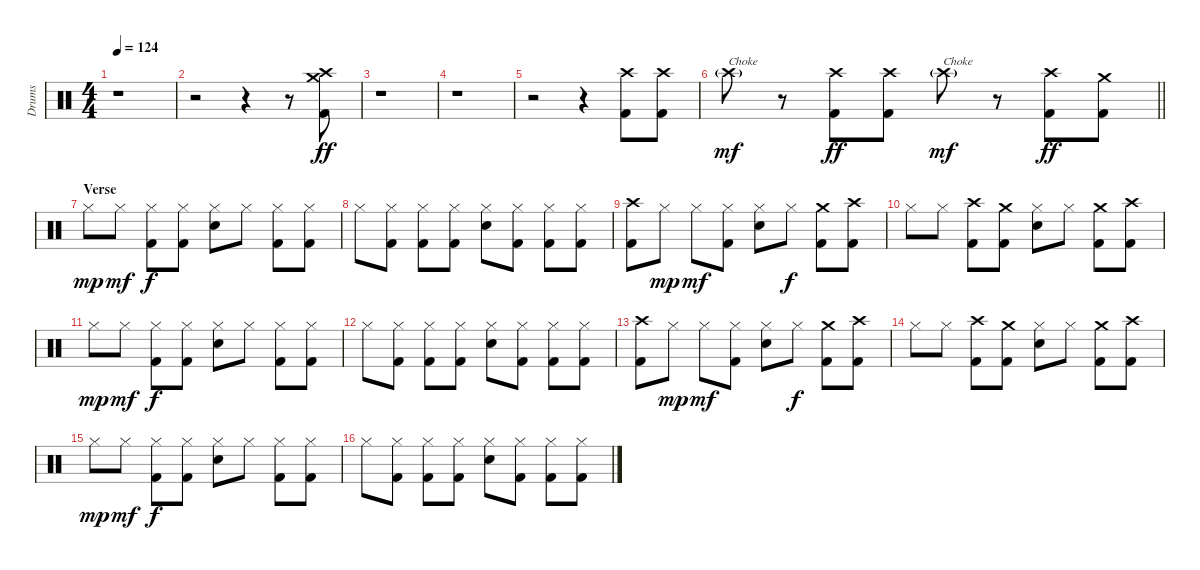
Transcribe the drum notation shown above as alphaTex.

\track ("Drums" "Drums") {instrument percussion}
\staff {score}
\articulation defaults
\ts (4 4)
\tempo 124
\clef neutral
\ks c
r.1{dy ppp} |
r.2 r.4 r.8 ("Crash high (hit)" "Crash medium (hit)" "Kick (hit) 2").8{dy ff volume 16} |
r.1 |
r.1 |
r.2 r.4 ("Crash high (hit)" "Kick (hit) 2").8 ("Crash high (hit)" "Kick (hit) 2").8 |
\barLineRight lightlight "Crash high (hit)"{g}.8{txt "Choke" dy mf volume 0}
r.8 ("Crash high (hit)" "Kick (hit) 2").8{dy ff volume 16} ("Crash high (hit)" "Kick (hit) 2").8 "Crash high (hit)"{g}.8{txt "Choke" dy mf volume 0} r.8 ("Crash high (hit)" "Kick (hit) 2").8{dy ff volume 16} ("Crash medium (hit)" "Kick (hit) 2").8 |
\section ("" "Verse")
"Hi-Hat (closed)".8{dy mp} "Hi-Hat (closed)".8{dy mf} ("Hi-Hat (closed)" "Kick (hit) 2").8{dy f} ("Hi-Hat (closed)" "Kick (hit) 2").8 ("Hi-Hat (closed)" "Snare (hit) 2").8 "Hi-Hat (closed)".8 ("Hi-Hat (closed)" "Kick (hit) 2").8 ("Hi-Hat (closed)" "Kick (hit) 2").8 |
"Hi-Hat (closed)".8 ("Hi-Hat (closed)" "Kick (hit) 2").8 ("Hi-Hat (closed)" "Kick (hit) 2").8 ("Hi-Hat (closed)" "Kick (hit) 2").8 ("Hi-Hat (closed)" "Snare (hit) 2").8 ("Hi-Hat (closed)" "Kick (hit) 2").8 ("Hi-Hat (closed)" "Kick (hit) 2").8 ("Hi-Hat (closed)" "Kick (hit) 2").8 |
("Crash high (hit)" "Kick (hit) 2").8 "Hi-Hat (closed)".8{dy mp} "Hi-Hat (closed)".8{dy mf} ("Hi-Hat (closed)" "Kick (hit) 2").8 ("Hi-Hat (closed)" "Snare (hit) 2").8 "Hi-Hat (closed)".8{dy f} ("Crash medium (hit)" "Kick (hit) 2").8 ("Crash high (hit)" "Kick (hit) 2").8 |
"Hi-Hat (closed)".8 "Hi-Hat (closed)".8 ("Crash high (hit)" "Kick (hit) 2").8 ("Crash medium (hit)" "Kick (hit) 2").8 ("Hi-Hat (closed)" "Snare (hit) 2").8 "Hi-Hat (closed)".8 ("Crash medium (hit)" "Kick (hit) 2").8 ("Crash high (hit)" "Kick (hit) 2").8 |
"Hi-Hat (closed)".8{dy mp} "Hi-Hat (closed)".8{dy mf} ("Hi-Hat (closed)" "Kick (hit) 2").8{dy f} ("Hi-Hat (closed)" "Kick (hit) 2").8 ("Hi-Hat (closed)" "Snare (hit) 2").8 "Hi-Hat (closed)".8 ("Hi-Hat (closed)" "Kick (hit) 2").8 ("Hi-Hat (closed)" "Kick (hit) 2").8 |
"Hi-Hat (closed)".8 ("Hi-Hat (closed)" "Kick (hit) 2").8 ("Hi-Hat (closed)" "Kick (hit) 2").8 ("Hi-Hat (closed)" "Kick (hit) 2").8 ("Hi-Hat (closed)" "Snare (hit) 2").8 ("Hi-Hat (closed)" "Kick (hit) 2").8 ("Hi-Hat (closed)" "Kick (hit) 2").8 ("Hi-Hat (closed)" "Kick (hit) 2").8 |
("Crash high (hit)" "Kick (hit) 2").8 "Hi-Hat (closed)".8{dy mp} "Hi-Hat (closed)".8{dy mf} ("Hi-Hat (closed)" "Kick (hit) 2").8 ("Hi-Hat (closed)" "Snare (hit) 2").8 "Hi-Hat (closed)".8{dy f} ("Crash medium (hit)" "Kick (hit) 2").8 ("Crash high (hit)" "Kick (hit) 2").8 |
"Hi-Hat (closed)".8 "Hi-Hat (closed)".8 ("Crash high (hit)" "Kick (hit) 2").8 ("Crash medium (hit)" "Kick (hit) 2").8 ("Hi-Hat (closed)" "Snare (hit) 2").8 "Hi-Hat (closed)".8 ("Crash medium (hit)" "Kick (hit) 2").8 ("Crash high (hit)" "Kick (hit) 2").8 |
"Hi-Hat (closed)".8{dy mp} "Hi-Hat (closed)".8{dy mf} ("Hi-Hat (closed)" "Kick (hit) 2").8{dy f} ("Hi-Hat (closed)" "Kick (hit) 2").8 ("Hi-Hat (closed)" "Snare (hit) 2").8 "Hi-Hat (closed)".8 ("Hi-Hat (closed)" "Kick (hit) 2").8 ("Hi-Hat (closed)" "Kick (hit) 2").8 |
"Hi-Hat (closed)".8 ("Hi-Hat (closed)" "Kick (hit) 2").8 ("Hi-Hat (closed)" "Kick (hit) 2").8 ("Hi-Hat (closed)" "Kick (hit) 2").8 ("Hi-Hat (closed)" "Snare (hit) 2").8 ("Hi-Hat (closed)" "Kick (hit) 2").8 ("Hi-Hat (closed)" "Kick (hit) 2").8 ("Hi-Hat (closed)" "Kick (hit) 2").8
